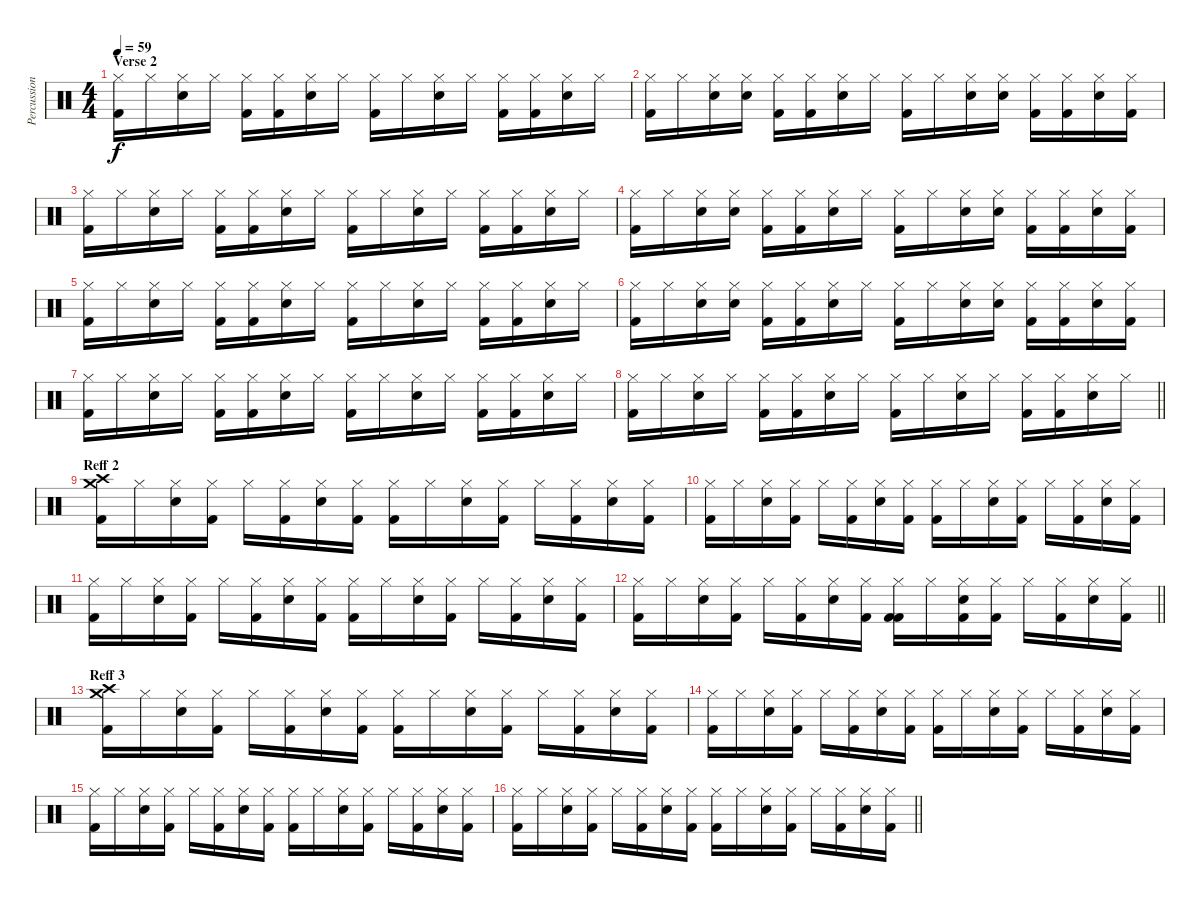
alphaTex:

\track ("Percussion 1" "Percussion") {instrument percussion}
\staff {score}
\articulation defaults
\ts (4 4)
\section ("" "Verse 2")
\tempo 59
\clef neutral
\ks c
("Hi-Hat (closed)" "Kick (hit) 2").16{dy f} "Hi-Hat (closed)".16 ("Hi-Hat (closed)" "Snare (hit) 2").16 "Hi-Hat (closed)".16 ("Hi-Hat (closed)" "Kick (hit) 2").16 ("Hi-Hat (closed)" "Kick (hit) 2").16 ("Hi-Hat (closed)" "Snare (hit) 2").16 "Hi-Hat (closed)".16 ("Hi-Hat (closed)" "Kick (hit) 2").16 "Hi-Hat (closed)".16 ("Hi-Hat (closed)" "Snare (hit) 2").16 "Hi-Hat (closed)".16 ("Hi-Hat (closed)" "Kick (hit) 2").16 ("Hi-Hat (closed)" "Kick (hit) 2").16 ("Hi-Hat (closed)" "Snare (hit) 2").16 "Hi-Hat (closed)".16 |
("Hi-Hat (closed)" "Kick (hit) 2").16 "Hi-Hat (closed)".16 ("Hi-Hat (closed)" "Snare (hit) 2").16 ("Hi-Hat (closed)" "Snare (hit) 2").16 ("Hi-Hat (closed)" "Kick (hit) 2").16 ("Hi-Hat (closed)" "Kick (hit) 2").16 ("Hi-Hat (closed)" "Snare (hit) 2").16 "Hi-Hat (closed)".16 ("Hi-Hat (closed)" "Kick (hit) 2").16 "Hi-Hat (closed)".16 ("Hi-Hat (closed)" "Snare (hit) 2").16 ("Hi-Hat (closed)" "Snare (hit) 2").16 ("Hi-Hat (closed)" "Kick (hit) 2").16 ("Hi-Hat (closed)" "Kick (hit) 2").16 ("Hi-Hat (closed)" "Snare (hit) 2").16 ("Hi-Hat (closed)" "Kick (hit) 2").16 |
("Hi-Hat (closed)" "Kick (hit) 2").16 "Hi-Hat (closed)".16 ("Hi-Hat (closed)" "Snare (hit) 2").16 "Hi-Hat (closed)".16 ("Hi-Hat (closed)" "Kick (hit) 2").16 ("Hi-Hat (closed)" "Kick (hit) 2").16 ("Hi-Hat (closed)" "Snare (hit) 2").16 "Hi-Hat (closed)".16 ("Hi-Hat (closed)" "Kick (hit) 2").16 "Hi-Hat (closed)".16 ("Hi-Hat (closed)" "Snare (hit) 2").16 "Hi-Hat (closed)".16 ("Hi-Hat (closed)" "Kick (hit) 2").16 ("Hi-Hat (closed)" "Kick (hit) 2").16 ("Hi-Hat (closed)" "Snare (hit) 2").16 "Hi-Hat (closed)".16 |
("Hi-Hat (closed)" "Kick (hit) 2").16 "Hi-Hat (closed)".16 ("Hi-Hat (closed)" "Snare (hit) 2").16 ("Hi-Hat (closed)" "Snare (hit) 2").16 ("Hi-Hat (closed)" "Kick (hit) 2").16 ("Hi-Hat (closed)" "Kick (hit) 2").16 ("Hi-Hat (closed)" "Snare (hit) 2").16 "Hi-Hat (closed)".16 ("Hi-Hat (closed)" "Kick (hit) 2").16 "Hi-Hat (closed)".16 ("Hi-Hat (closed)" "Snare (hit) 2").16 ("Hi-Hat (closed)" "Snare (hit) 2").16 ("Hi-Hat (closed)" "Kick (hit) 2").16 ("Hi-Hat (closed)" "Kick (hit) 2").16 ("Hi-Hat (closed)" "Snare (hit) 2").16 ("Hi-Hat (closed)" "Kick (hit) 2").16 |
("Hi-Hat (closed)" "Kick (hit) 2").16 "Hi-Hat (closed)".16 ("Hi-Hat (closed)" "Snare (hit) 2").16 "Hi-Hat (closed)".16 ("Hi-Hat (closed)" "Kick (hit) 2").16 ("Hi-Hat (closed)" "Kick (hit) 2").16 ("Hi-Hat (closed)" "Snare (hit) 2").16 "Hi-Hat (closed)".16 ("Hi-Hat (closed)" "Kick (hit) 2").16 "Hi-Hat (closed)".16 ("Hi-Hat (closed)" "Snare (hit) 2").16 "Hi-Hat (closed)".16 ("Hi-Hat (closed)" "Kick (hit) 2").16 ("Hi-Hat (closed)" "Kick (hit) 2").16 ("Hi-Hat (closed)" "Snare (hit) 2").16 "Hi-Hat (closed)".16 |
("Hi-Hat (closed)" "Kick (hit) 2").16 "Hi-Hat (closed)".16 ("Hi-Hat (closed)" "Snare (hit) 2").16 ("Hi-Hat (closed)" "Snare (hit) 2").16 ("Hi-Hat (closed)" "Kick (hit) 2").16 ("Hi-Hat (closed)" "Kick (hit) 2").16 ("Hi-Hat (closed)" "Snare (hit) 2").16 "Hi-Hat (closed)".16 ("Hi-Hat (closed)" "Kick (hit) 2").16 "Hi-Hat (closed)".16 ("Hi-Hat (closed)" "Snare (hit) 2").16 ("Hi-Hat (closed)" "Snare (hit) 2").16 ("Hi-Hat (closed)" "Kick (hit) 2").16 ("Hi-Hat (closed)" "Kick (hit) 2").16 ("Hi-Hat (closed)" "Snare (hit) 2").16 ("Hi-Hat (closed)" "Kick (hit) 2").16 |
("Hi-Hat (closed)" "Kick (hit) 2").16 "Hi-Hat (closed)".16 ("Hi-Hat (closed)" "Snare (hit) 2").16 "Hi-Hat (closed)".16 ("Hi-Hat (closed)" "Kick (hit) 2").16 ("Hi-Hat (closed)" "Kick (hit) 2").16 ("Hi-Hat (closed)" "Snare (hit) 2").16 "Hi-Hat (closed)".16 ("Hi-Hat (closed)" "Kick (hit) 2").16 "Hi-Hat (closed)".16 ("Hi-Hat (closed)" "Snare (hit) 2").16 "Hi-Hat (closed)".16 ("Hi-Hat (closed)" "Kick (hit) 2").16 ("Hi-Hat (closed)" "Kick (hit) 2").16 ("Hi-Hat (closed)" "Snare (hit) 2").16 "Hi-Hat (closed)".16 |
\barLineRight lightlight
("Hi-Hat (closed)" "Kick (hit) 2").16 "Hi-Hat (closed)".16 ("Hi-Hat (closed)" "Snare (hit) 2").16 "Hi-Hat (closed)".16 ("Hi-Hat (closed)" "Kick (hit) 2").16 ("Hi-Hat (closed)" "Kick (hit) 2").16 ("Hi-Hat (closed)" "Snare (hit) 2").16 "Hi-Hat (closed)".16 ("Hi-Hat (closed)" "Kick (hit) 2").16 "Hi-Hat (closed)".16 ("Hi-Hat (closed)" "Snare (hit) 2").16 "Hi-Hat (closed)".16 ("Hi-Hat (closed)" "Kick (hit) 2").16 ("Hi-Hat (closed)" "Kick (hit) 2").16 ("Hi-Hat (closed)" "Snare (hit) 2").16 "Hi-Hat (closed)".16 |
\section ("" "Reff 2")
("Crash high (hit)" "Crash medium (hit)" "Kick (hit) 2").16 "Hi-Hat (closed)".16 ("Hi-Hat (closed)" "Snare (hit) 2").16 ("Hi-Hat (closed)" "Kick (hit) 2").16 "Hi-Hat (closed)".16 ("Hi-Hat (closed)" "Kick (hit) 2").16 ("Hi-Hat (closed)" "Snare (hit) 2").16 ("Hi-Hat (closed)" "Kick (hit) 2").16 ("Hi-Hat (closed)" "Kick (hit) 2").16 "Hi-Hat (closed)".16 ("Hi-Hat (closed)" "Snare (hit) 2").16 ("Hi-Hat (closed)" "Kick (hit) 2").16 "Hi-Hat (closed)".16 ("Hi-Hat (closed)" "Kick (hit) 2").16 ("Hi-Hat (closed)" "Snare (hit) 2").16 ("Hi-Hat (closed)" "Kick (hit) 2").16 |
("Hi-Hat (closed)" "Kick (hit) 2").16 "Hi-Hat (closed)".16 ("Hi-Hat (closed)" "Snare (hit) 2").16 ("Hi-Hat (closed)" "Kick (hit) 2").16 "Hi-Hat (closed)".16 ("Hi-Hat (closed)" "Kick (hit) 2").16 ("Hi-Hat (closed)" "Snare (hit) 2").16 ("Hi-Hat (closed)" "Kick (hit) 2").16 ("Hi-Hat (closed)" "Kick (hit) 2").16 "Hi-Hat (closed)".16 ("Hi-Hat (closed)" "Snare (hit) 2").16 ("Hi-Hat (closed)" "Kick (hit) 2").16 "Hi-Hat (closed)".16 ("Hi-Hat (closed)" "Kick (hit) 2").16 ("Hi-Hat (closed)" "Snare (hit) 2").16 ("Hi-Hat (closed)" "Kick (hit) 2").16 |
("Hi-Hat (closed)" "Kick (hit) 2").16 "Hi-Hat (closed)".16 ("Hi-Hat (closed)" "Snare (hit) 2").16 ("Hi-Hat (closed)" "Kick (hit) 2").16 "Hi-Hat (closed)".16 ("Hi-Hat (closed)" "Kick (hit) 2").16 ("Hi-Hat (closed)" "Snare (hit) 2").16 ("Hi-Hat (closed)" "Kick (hit) 2").16 ("Hi-Hat (closed)" "Kick (hit) 2").16 "Hi-Hat (closed)".16 ("Hi-Hat (closed)" "Snare (hit) 2").16 ("Hi-Hat (closed)" "Kick (hit) 2").16 "Hi-Hat (closed)".16 ("Hi-Hat (closed)" "Kick (hit) 2").16 ("Hi-Hat (closed)" "Snare (hit) 2").16 ("Hi-Hat (closed)" "Kick (hit) 2").16 |
\barLineRight lightlight
("Hi-Hat (closed)" "Kick (hit) 2").16 "Hi-Hat (closed)".16 ("Hi-Hat (closed)" "Snare (hit) 2").16 ("Hi-Hat (closed)" "Kick (hit) 2").16 "Hi-Hat (closed)".16 ("Hi-Hat (closed)" "Kick (hit) 2").16 ("Hi-Hat (closed)" "Snare (hit) 2").16 ("Hi-Hat (closed)" "Kick (hit) 2").16 ("Hi-Hat (closed)" "Kick (hit) 2" "Kick (hit) 2").16 "Hi-Hat (closed)".16 ("Hi-Hat (closed)" "Snare (hit) 2" "Kick (hit) 2").16 ("Hi-Hat (closed)" "Kick (hit) 2").16 "Hi-Hat (closed)".16 ("Hi-Hat (closed)" "Kick (hit) 2").16 ("Hi-Hat (closed)" "Snare (hit) 2").16 ("Hi-Hat (closed)" "Kick (hit) 2").16 |
\section ("" "Reff 3")
("Crash high (hit)" "Crash medium (hit)" "Kick (hit) 2").16 "Hi-Hat (closed)".16 ("Hi-Hat (closed)" "Snare (hit) 2").16 ("Hi-Hat (closed)" "Kick (hit) 2").16 "Hi-Hat (closed)".16 ("Hi-Hat (closed)" "Kick (hit) 2").16 ("Hi-Hat (closed)" "Snare (hit) 2").16 ("Hi-Hat (closed)" "Kick (hit) 2").16 ("Hi-Hat (closed)" "Kick (hit) 2").16 "Hi-Hat (closed)".16 ("Hi-Hat (closed)" "Snare (hit) 2").16 ("Hi-Hat (closed)" "Kick (hit) 2").16 "Hi-Hat (closed)".16 ("Hi-Hat (closed)" "Kick (hit) 2").16 ("Hi-Hat (closed)" "Snare (hit) 2").16 ("Hi-Hat (closed)" "Kick (hit) 2").16 |
("Hi-Hat (closed)" "Kick (hit) 2").16 "Hi-Hat (closed)".16 ("Hi-Hat (closed)" "Snare (hit) 2").16 ("Hi-Hat (closed)" "Kick (hit) 2").16 "Hi-Hat (closed)".16 ("Hi-Hat (closed)" "Kick (hit) 2").16 ("Hi-Hat (closed)" "Snare (hit) 2").16 ("Hi-Hat (closed)" "Kick (hit) 2").16 ("Hi-Hat (closed)" "Kick (hit) 2").16 "Hi-Hat (closed)".16 ("Hi-Hat (closed)" "Snare (hit) 2").16 ("Hi-Hat (closed)" "Kick (hit) 2").16 "Hi-Hat (closed)".16 ("Hi-Hat (closed)" "Kick (hit) 2").16 ("Hi-Hat (closed)" "Snare (hit) 2").16 ("Hi-Hat (closed)" "Kick (hit) 2").16 |
("Hi-Hat (closed)" "Kick (hit) 2").16 "Hi-Hat (closed)".16 ("Hi-Hat (closed)" "Snare (hit) 2").16 ("Hi-Hat (closed)" "Kick (hit) 2").16 "Hi-Hat (closed)".16 ("Hi-Hat (closed)" "Kick (hit) 2").16 ("Hi-Hat (closed)" "Snare (hit) 2").16 ("Hi-Hat (closed)" "Kick (hit) 2").16 ("Hi-Hat (closed)" "Kick (hit) 2").16 "Hi-Hat (closed)".16 ("Hi-Hat (closed)" "Snare (hit) 2").16 ("Hi-Hat (closed)" "Kick (hit) 2").16 "Hi-Hat (closed)".16 ("Hi-Hat (closed)" "Kick (hit) 2").16 ("Hi-Hat (closed)" "Snare (hit) 2").16 ("Hi-Hat (closed)" "Kick (hit) 2").16 |
\barLineRight lightlight
("Hi-Hat (closed)" "Kick (hit) 2").16 "Hi-Hat (closed)".16 ("Hi-Hat (closed)" "Snare (hit) 2").16 ("Hi-Hat (closed)" "Kick (hit) 2").16 "Hi-Hat (closed)".16 ("Hi-Hat (closed)" "Kick (hit) 2").16 ("Hi-Hat (closed)" "Snare (hit) 2").16 ("Hi-Hat (closed)" "Kick (hit) 2").16 ("Hi-Hat (closed)" "Kick (hit) 2").16 "Hi-Hat (closed)".16 ("Hi-Hat (closed)" "Snare (hit) 2").16 ("Hi-Hat (closed)" "Kick (hit) 2").16 "Hi-Hat (closed)".16 ("Hi-Hat (closed)" "Kick (hit) 2").16 ("Hi-Hat (closed)" "Snare (hit) 2").16 ("Hi-Hat (closed)" "Kick (hit) 2").16
